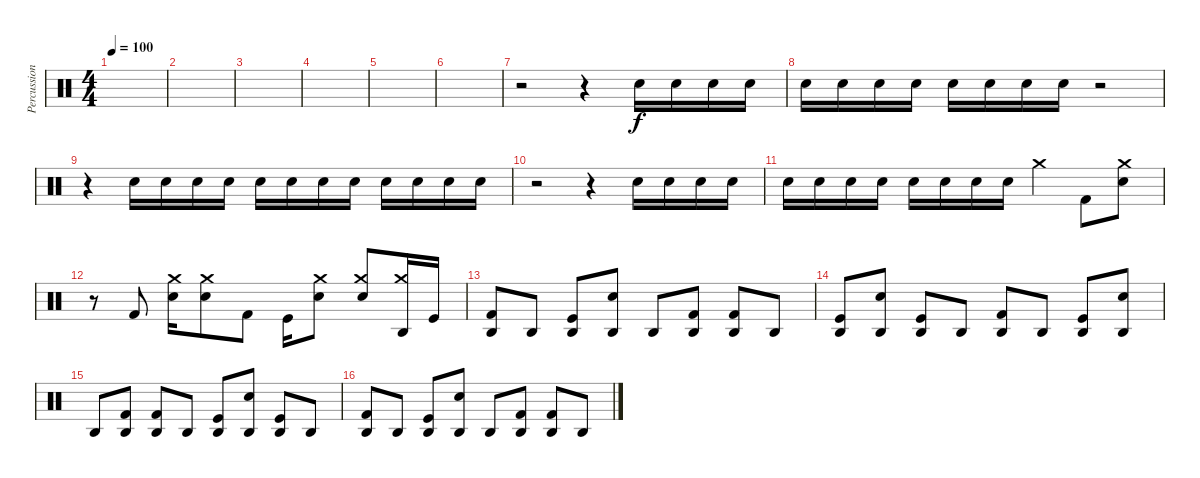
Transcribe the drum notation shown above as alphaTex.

\track ("Percussions" "Percussion") {instrument percussion}
\staff {score}
\articulation defaults
\ts (4 4)
\tempo 100
\clef neutral
\ks c
|
|
|
|
|
|
r.2 r.4 "Electric Snare (hit)".16 "Electric Snare (hit)".16 "Electric Snare (hit)".16 "Electric Snare (hit)".16 |
"Electric Snare (hit)".16 "Electric Snare (hit)".16 "Electric Snare (hit)".16 "Electric Snare (hit)".16 "Electric Snare (hit)".16 "Electric Snare (hit)".16 "Electric Snare (hit)".16 "Electric Snare (hit)".16 r.2 |
r.4 "Electric Snare (hit)".16 "Electric Snare (hit)".16 "Electric Snare (hit)".16 "Electric Snare (hit)".16 "Electric Snare (hit)".16 "Electric Snare (hit)".16 "Electric Snare (hit)".16 "Electric Snare (hit)".16 "Electric Snare (hit)".16 "Electric Snare (hit)".16 "Electric Snare (hit)".16 "Electric Snare (hit)".16 |
r.2 r.4 "Electric Snare (hit)".16 "Electric Snare (hit)".16 "Electric Snare (hit)".16 "Electric Snare (hit)".16 |
"Electric Snare (hit)".16 "Electric Snare (hit)".16 "Electric Snare (hit)".16 "Electric Snare (hit)".16 "Electric Snare (hit)".16 "Electric Snare (hit)".16 "Electric Snare (hit)".16 "Electric Snare (hit)".16 "Crash medium (hit)".4 "Kick (hit) 2".8 ("Electric Snare (hit)" "Crash medium (hit)").8 |
r.8 "Kick (hit) 2".8 ("Electric Snare (hit)" "Crash medium (hit)").16 ("Electric Snare (hit)" "Crash medium (hit)").8 "Kick (hit) 2".8 "Kick (hit)".16 ("Electric Snare (hit)" "Crash medium (hit)").8 ("Crash medium (hit)" "Electric Snare (hit)").8 ("Agogo high (hit)" "Crash medium (hit)").16 "Kick (hit)".16 |
("Agogo high (hit)" "Kick (hit) 2").8 "Agogo high (hit)".8 ("Agogo high (hit)" "Kick (hit)").8 ("Agogo high (hit)" "Electric Snare (hit)").8 "Agogo high (hit)".8 ("Agogo high (hit)" "Kick (hit) 2").8 ("Agogo high (hit)" "Kick (hit) 2").8 "Agogo high (hit)".8 |
("Agogo high (hit)" "Kick (hit)").8 ("Agogo high (hit)" "Electric Snare (hit)").8 ("Agogo high (hit)" "Kick (hit)").8 "Agogo high (hit)".8 ("Agogo high (hit)" "Kick (hit) 2").8 "Agogo high (hit)".8 ("Agogo high (hit)" "Kick (hit)").8 ("Agogo high (hit)" "Electric Snare (hit)").8 |
"Agogo high (hit)".8 ("Agogo high (hit)" "Kick (hit) 2").8 ("Agogo high (hit)" "Kick (hit) 2").8 "Agogo high (hit)".8 ("Agogo high (hit)" "Kick (hit)").8 ("Agogo high (hit)" "Electric Snare (hit)").8 ("Agogo high (hit)" "Kick (hit)").8 "Agogo high (hit)".8 |
("Agogo high (hit)" "Kick (hit) 2").8 "Agogo high (hit)".8 ("Agogo high (hit)" "Kick (hit)").8 ("Agogo high (hit)" "Electric Snare (hit)").8 "Agogo high (hit)".8 ("Agogo high (hit)" "Kick (hit) 2").8 ("Agogo high (hit)" "Kick (hit) 2").8 "Agogo high (hit)".8
